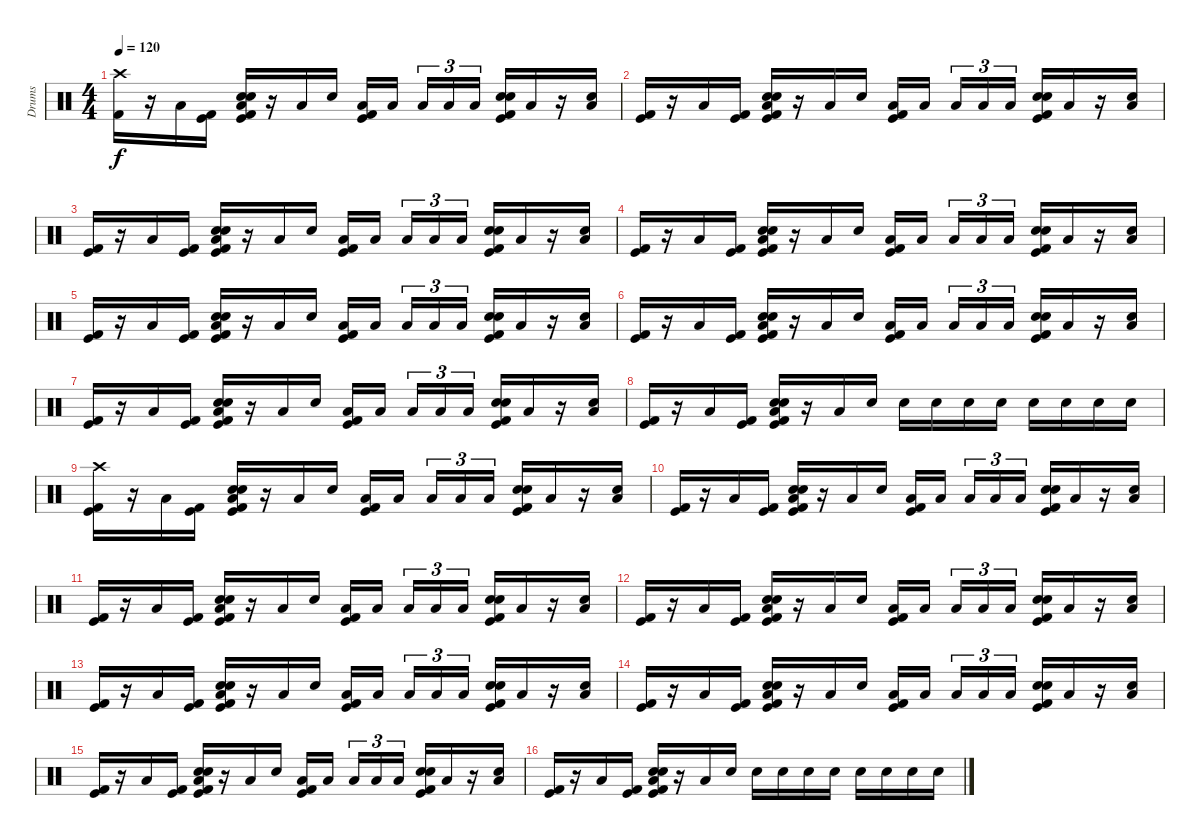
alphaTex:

\track ("Drums" "Drums") {instrument percussion}
\staff {score}
\articulation defaults
\ts (4 4)
\tempo 120
\clef neutral
\ks c
("Crash high (hit)" "Kick (hit) 2").16{dy f} r.16 "Low Tom (hit)".16 ("Kick (hit)" "Kick (hit) 2").16 ("Snare (hit) 2" "Low Tom (hit)" "Electric Snare (hit)" "Kick (hit)" "Kick (hit) 2").16 r.16 "Low Tom (hit)".16 "Electric Snare (hit)".16 ("Low Tom (hit)" "Kick (hit)" "Kick (hit) 2").16 "Low Tom (hit)".16 "Low Tom (hit)".16{tu (3 2)} "Low Tom (hit)".16{tu (3 2)} "Low Tom (hit)".16{tu (3 2)} ("Snare (hit) 2" "Electric Snare (hit)" "Kick (hit)" "Kick (hit) 2").16 "Low Tom (hit)".16 r.16 ("Low Tom (hit)" "Electric Snare (hit)").16 |
("Kick (hit)" "Kick (hit) 2").16 r.16 "Low Tom (hit)".16 ("Kick (hit)" "Kick (hit) 2").16 ("Snare (hit) 2" "Low Tom (hit)" "Electric Snare (hit)" "Kick (hit)" "Kick (hit) 2").16 r.16 "Low Tom (hit)".16 "Electric Snare (hit)".16 ("Low Tom (hit)" "Kick (hit)" "Kick (hit) 2").16 "Low Tom (hit)".16 "Low Tom (hit)".16{tu (3 2)} "Low Tom (hit)".16{tu (3 2)} "Low Tom (hit)".16{tu (3 2)} ("Snare (hit) 2" "Electric Snare (hit)" "Kick (hit)" "Kick (hit) 2").16 "Low Tom (hit)".16 r.16 ("Low Tom (hit)" "Electric Snare (hit)").16 |
("Kick (hit)" "Kick (hit) 2").16 r.16 "Low Tom (hit)".16 ("Kick (hit)" "Kick (hit) 2").16 ("Snare (hit) 2" "Low Tom (hit)" "Electric Snare (hit)" "Kick (hit)" "Kick (hit) 2").16 r.16 "Low Tom (hit)".16 "Electric Snare (hit)".16 ("Low Tom (hit)" "Kick (hit)" "Kick (hit) 2").16 "Low Tom (hit)".16 "Low Tom (hit)".16{tu (3 2)} "Low Tom (hit)".16{tu (3 2)} "Low Tom (hit)".16{tu (3 2)} ("Snare (hit) 2" "Electric Snare (hit)" "Kick (hit)" "Kick (hit) 2").16 "Low Tom (hit)".16 r.16 ("Low Tom (hit)" "Electric Snare (hit)").16 |
("Kick (hit)" "Kick (hit) 2").16 r.16 "Low Tom (hit)".16 ("Kick (hit)" "Kick (hit) 2").16 ("Snare (hit) 2" "Low Tom (hit)" "Electric Snare (hit)" "Kick (hit)" "Kick (hit) 2").16 r.16 "Low Tom (hit)".16 "Electric Snare (hit)".16 ("Low Tom (hit)" "Kick (hit)" "Kick (hit) 2").16 "Low Tom (hit)".16 "Low Tom (hit)".16{tu (3 2)} "Low Tom (hit)".16{tu (3 2)} "Low Tom (hit)".16{tu (3 2)} ("Snare (hit) 2" "Electric Snare (hit)" "Kick (hit)" "Kick (hit) 2").16 "Low Tom (hit)".16 r.16 ("Low Tom (hit)" "Electric Snare (hit)").16 |
("Kick (hit)" "Kick (hit) 2").16 r.16 "Low Tom (hit)".16 ("Kick (hit)" "Kick (hit) 2").16 ("Snare (hit) 2" "Low Tom (hit)" "Electric Snare (hit)" "Kick (hit)" "Kick (hit) 2").16 r.16 "Low Tom (hit)".16 "Electric Snare (hit)".16 ("Low Tom (hit)" "Kick (hit)" "Kick (hit) 2").16 "Low Tom (hit)".16 "Low Tom (hit)".16{tu (3 2)} "Low Tom (hit)".16{tu (3 2)} "Low Tom (hit)".16{tu (3 2)} ("Snare (hit) 2" "Electric Snare (hit)" "Kick (hit)" "Kick (hit) 2").16 "Low Tom (hit)".16 r.16 ("Low Tom (hit)" "Electric Snare (hit)").16 |
("Kick (hit)" "Kick (hit) 2").16 r.16 "Low Tom (hit)".16 ("Kick (hit)" "Kick (hit) 2").16 ("Snare (hit) 2" "Low Tom (hit)" "Electric Snare (hit)" "Kick (hit)" "Kick (hit) 2").16 r.16 "Low Tom (hit)".16 "Electric Snare (hit)".16 ("Low Tom (hit)" "Kick (hit)" "Kick (hit) 2").16 "Low Tom (hit)".16 "Low Tom (hit)".16{tu (3 2)} "Low Tom (hit)".16{tu (3 2)} "Low Tom (hit)".16{tu (3 2)} ("Snare (hit) 2" "Electric Snare (hit)" "Kick (hit)" "Kick (hit) 2").16 "Low Tom (hit)".16 r.16 ("Low Tom (hit)" "Electric Snare (hit)").16 |
("Kick (hit)" "Kick (hit) 2").16 r.16 "Low Tom (hit)".16 ("Kick (hit)" "Kick (hit) 2").16 ("Snare (hit) 2" "Low Tom (hit)" "Electric Snare (hit)" "Kick (hit)" "Kick (hit) 2").16 r.16 "Low Tom (hit)".16 "Electric Snare (hit)".16 ("Low Tom (hit)" "Kick (hit)" "Kick (hit) 2").16 "Low Tom (hit)".16 "Low Tom (hit)".16{tu (3 2)} "Low Tom (hit)".16{tu (3 2)} "Low Tom (hit)".16{tu (3 2)} ("Snare (hit) 2" "Electric Snare (hit)" "Kick (hit)" "Kick (hit) 2").16 "Low Tom (hit)".16 r.16 ("Low Tom (hit)" "Electric Snare (hit)").16 |
("Kick (hit)" "Kick (hit) 2").16 r.16 "Low Tom (hit)".16 ("Kick (hit)" "Kick (hit) 2").16 ("Snare (hit) 2" "Low Tom (hit)" "Electric Snare (hit)" "Kick (hit)" "Kick (hit) 2").16 r.16 "Low Tom (hit)".16 "Electric Snare (hit)".16 "Snare (hit) 2".16 "Snare (hit) 2".16 "Snare (hit) 2".16 "Snare (hit) 2".16 "Electric Snare (hit)".16 "Electric Snare (hit)".16 "Electric Snare (hit)".16 "Electric Snare (hit)".16 |
("Crash high (hit)" "Kick (hit)" "Kick (hit) 2").16 r.16 "Low Tom (hit)".16 ("Kick (hit)" "Kick (hit) 2").16 ("Snare (hit) 2" "Low Tom (hit)" "Electric Snare (hit)" "Kick (hit)" "Kick (hit) 2").16 r.16 "Low Tom (hit)".16 "Electric Snare (hit)".16 ("Low Tom (hit)" "Kick (hit)" "Kick (hit) 2").16 "Low Tom (hit)".16 "Low Tom (hit)".16{tu (3 2)} "Low Tom (hit)".16{tu (3 2)} "Low Tom (hit)".16{tu (3 2)} ("Snare (hit) 2" "Electric Snare (hit)" "Kick (hit)" "Kick (hit) 2").16 "Low Tom (hit)".16 r.16 ("Low Tom (hit)" "Electric Snare (hit)").16 |
("Kick (hit)" "Kick (hit) 2").16 r.16 "Low Tom (hit)".16 ("Kick (hit)" "Kick (hit) 2").16 ("Snare (hit) 2" "Low Tom (hit)" "Electric Snare (hit)" "Kick (hit)" "Kick (hit) 2").16 r.16 "Low Tom (hit)".16 "Electric Snare (hit)".16 ("Low Tom (hit)" "Kick (hit)" "Kick (hit) 2").16 "Low Tom (hit)".16 "Low Tom (hit)".16{tu (3 2)} "Low Tom (hit)".16{tu (3 2)} "Low Tom (hit)".16{tu (3 2)} ("Snare (hit) 2" "Electric Snare (hit)" "Kick (hit)" "Kick (hit) 2").16 "Low Tom (hit)".16 r.16 ("Low Tom (hit)" "Electric Snare (hit)").16 |
("Kick (hit)" "Kick (hit) 2").16 r.16 "Low Tom (hit)".16 ("Kick (hit)" "Kick (hit) 2").16 ("Snare (hit) 2" "Low Tom (hit)" "Electric Snare (hit)" "Kick (hit)" "Kick (hit) 2").16 r.16 "Low Tom (hit)".16 "Electric Snare (hit)".16 ("Low Tom (hit)" "Kick (hit)" "Kick (hit) 2").16 "Low Tom (hit)".16 "Low Tom (hit)".16{tu (3 2)} "Low Tom (hit)".16{tu (3 2)} "Low Tom (hit)".16{tu (3 2)} ("Snare (hit) 2" "Electric Snare (hit)" "Kick (hit)" "Kick (hit) 2").16 "Low Tom (hit)".16 r.16 ("Low Tom (hit)" "Electric Snare (hit)").16 |
("Kick (hit)" "Kick (hit) 2").16 r.16 "Low Tom (hit)".16 ("Kick (hit)" "Kick (hit) 2").16 ("Snare (hit) 2" "Low Tom (hit)" "Electric Snare (hit)" "Kick (hit)" "Kick (hit) 2").16 r.16 "Low Tom (hit)".16 "Electric Snare (hit)".16 ("Low Tom (hit)" "Kick (hit)" "Kick (hit) 2").16 "Low Tom (hit)".16 "Low Tom (hit)".16{tu (3 2)} "Low Tom (hit)".16{tu (3 2)} "Low Tom (hit)".16{tu (3 2)} ("Snare (hit) 2" "Electric Snare (hit)" "Kick (hit)" "Kick (hit) 2").16 "Low Tom (hit)".16 r.16 ("Low Tom (hit)" "Electric Snare (hit)").16 |
("Kick (hit)" "Kick (hit) 2").16 r.16 "Low Tom (hit)".16 ("Kick (hit)" "Kick (hit) 2").16 ("Snare (hit) 2" "Low Tom (hit)" "Electric Snare (hit)" "Kick (hit)" "Kick (hit) 2").16 r.16 "Low Tom (hit)".16 "Electric Snare (hit)".16 ("Low Tom (hit)" "Kick (hit)" "Kick (hit) 2").16 "Low Tom (hit)".16 "Low Tom (hit)".16{tu (3 2)} "Low Tom (hit)".16{tu (3 2)} "Low Tom (hit)".16{tu (3 2)} ("Snare (hit) 2" "Electric Snare (hit)" "Kick (hit)" "Kick (hit) 2").16 "Low Tom (hit)".16 r.16 ("Low Tom (hit)" "Electric Snare (hit)").16 |
("Kick (hit)" "Kick (hit) 2").16 r.16 "Low Tom (hit)".16 ("Kick (hit)" "Kick (hit) 2").16 ("Snare (hit) 2" "Low Tom (hit)" "Electric Snare (hit)" "Kick (hit)" "Kick (hit) 2").16 r.16 "Low Tom (hit)".16 "Electric Snare (hit)".16 ("Low Tom (hit)" "Kick (hit)" "Kick (hit) 2").16 "Low Tom (hit)".16 "Low Tom (hit)".16{tu (3 2)} "Low Tom (hit)".16{tu (3 2)} "Low Tom (hit)".16{tu (3 2)} ("Snare (hit) 2" "Electric Snare (hit)" "Kick (hit)" "Kick (hit) 2").16 "Low Tom (hit)".16 r.16 ("Low Tom (hit)" "Electric Snare (hit)").16 |
("Kick (hit)" "Kick (hit) 2").16 r.16 "Low Tom (hit)".16 ("Kick (hit)" "Kick (hit) 2").16 ("Snare (hit) 2" "Low Tom (hit)" "Electric Snare (hit)" "Kick (hit)" "Kick (hit) 2").16 r.16 "Low Tom (hit)".16 "Electric Snare (hit)".16 ("Low Tom (hit)" "Kick (hit)" "Kick (hit) 2").16 "Low Tom (hit)".16 "Low Tom (hit)".16{tu (3 2)} "Low Tom (hit)".16{tu (3 2)} "Low Tom (hit)".16{tu (3 2)} ("Snare (hit) 2" "Electric Snare (hit)" "Kick (hit)" "Kick (hit) 2").16 "Low Tom (hit)".16 r.16 ("Low Tom (hit)" "Electric Snare (hit)").16 |
("Kick (hit)" "Kick (hit) 2").16 r.16 "Low Tom (hit)".16 ("Kick (hit)" "Kick (hit) 2").16 ("Snare (hit) 2" "Low Tom (hit)" "Electric Snare (hit)" "Kick (hit)" "Kick (hit) 2").16 r.16 "Low Tom (hit)".16 "Snare (hit) 2".16 "Snare (hit) 2".16 "Snare (hit) 2".16 "Snare (hit) 2".16 "Snare (hit) 2".16 "Electric Snare (hit)".16 "Electric Snare (hit)".16 "Electric Snare (hit)".16 "Electric Snare (hit)".16
